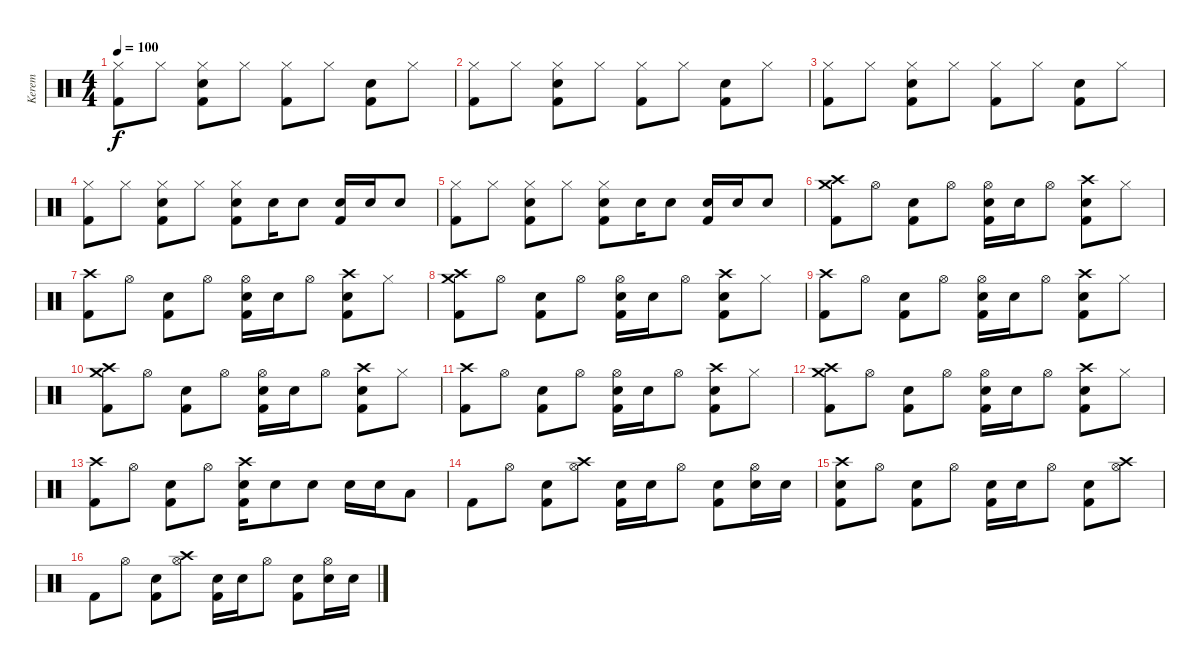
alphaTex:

\track ("Kerem" "Kerem") {instrument percussion}
\staff {score}
\articulation defaults
\ts (4 4)
\tempo 100
\clef neutral
\ks c
("Hi-Hat (closed)" "Kick (hit) 2").8{dy f} "Hi-Hat (closed)".8 ("Hi-Hat (closed)" "Electric Snare (hit)" "Kick (hit) 2").8 "Hi-Hat (closed)".8 ("Hi-Hat (closed)" "Kick (hit) 2").8 "Hi-Hat (closed)".8 ("Electric Snare (hit)" "Kick (hit) 2").8 "Hi-Hat (closed)".8 |
("Hi-Hat (closed)" "Kick (hit) 2").8 "Hi-Hat (closed)".8 ("Hi-Hat (closed)" "Electric Snare (hit)" "Kick (hit) 2").8 "Hi-Hat (closed)".8 ("Hi-Hat (closed)" "Kick (hit) 2").8 "Hi-Hat (closed)".8 ("Electric Snare (hit)" "Kick (hit) 2").8 "Hi-Hat (closed)".8 |
("Hi-Hat (closed)" "Kick (hit) 2").8 "Hi-Hat (closed)".8 ("Hi-Hat (closed)" "Electric Snare (hit)" "Kick (hit) 2").8 "Hi-Hat (closed)".8 ("Hi-Hat (closed)" "Kick (hit) 2").8 "Hi-Hat (closed)".8 ("Electric Snare (hit)" "Kick (hit) 2").8 "Hi-Hat (closed)".8 |
("Hi-Hat (closed)" "Kick (hit) 2").8 "Hi-Hat (closed)".8 ("Hi-Hat (closed)" "Electric Snare (hit)" "Kick (hit) 2").8 "Hi-Hat (closed)".8 ("Hi-Hat (closed)" "Electric Snare (hit)" "Kick (hit) 2").8 "Electric Snare (hit)".16 "Electric Snare (hit)".8 ("Electric Snare (hit)" "Kick (hit) 2").16 "Electric Snare (hit)".16 "Electric Snare (hit)".8 |
("Hi-Hat (closed)" "Kick (hit) 2").8 "Hi-Hat (closed)".8 ("Hi-Hat (closed)" "Electric Snare (hit)" "Kick (hit) 2").8 "Hi-Hat (closed)".8 ("Hi-Hat (closed)" "Electric Snare (hit)" "Kick (hit) 2").8 "Electric Snare (hit)".16 "Electric Snare (hit)".8 ("Electric Snare (hit)" "Kick (hit) 2").16 "Electric Snare (hit)".16 "Electric Snare (hit)".8 |
("Crash high (hit)" "Crash medium (hit)" "Kick (hit) 2").8 "Hi-Hat (open)".8 ("Electric Snare (hit)" "Kick (hit) 2").8 "Hi-Hat (open)".8 ("Electric Snare (hit)" "Hi-Hat (open)" "Kick (hit) 2").16 "Electric Snare (hit)".16 "Hi-Hat (open)".8 ("Crash high (hit)" "Electric Snare (hit)" "Kick (hit) 2").8 "Hi-Hat (closed)".8 |
("Crash high (hit)" "Kick (hit) 2").8 "Hi-Hat (open)".8 ("Electric Snare (hit)" "Kick (hit) 2").8 "Hi-Hat (open)".8 ("Electric Snare (hit)" "Hi-Hat (open)" "Kick (hit) 2").16 "Electric Snare (hit)".16 "Hi-Hat (open)".8 ("Crash high (hit)" "Electric Snare (hit)" "Kick (hit) 2").8 "Hi-Hat (closed)".8 |
("Crash high (hit)" "Crash medium (hit)" "Kick (hit) 2").8 "Hi-Hat (open)".8 ("Electric Snare (hit)" "Kick (hit) 2").8 "Hi-Hat (open)".8 ("Electric Snare (hit)" "Hi-Hat (open)" "Kick (hit) 2").16 "Electric Snare (hit)".16 "Hi-Hat (open)".8 ("Crash high (hit)" "Electric Snare (hit)" "Kick (hit) 2").8 "Hi-Hat (closed)".8 |
("Crash high (hit)" "Kick (hit) 2").8 "Hi-Hat (open)".8 ("Electric Snare (hit)" "Kick (hit) 2").8 "Hi-Hat (open)".8 ("Electric Snare (hit)" "Hi-Hat (open)" "Kick (hit) 2").16 "Electric Snare (hit)".16 "Hi-Hat (open)".8 ("Crash high (hit)" "Electric Snare (hit)" "Kick (hit) 2").8 "Hi-Hat (closed)".8 |
("Crash high (hit)" "Crash medium (hit)" "Kick (hit) 2").8 "Hi-Hat (open)".8 ("Electric Snare (hit)" "Kick (hit) 2").8 "Hi-Hat (open)".8 ("Electric Snare (hit)" "Hi-Hat (open)" "Kick (hit) 2").16 "Electric Snare (hit)".16 "Hi-Hat (open)".8 ("Crash high (hit)" "Electric Snare (hit)" "Kick (hit) 2").8 "Hi-Hat (closed)".8 |
("Crash high (hit)" "Kick (hit) 2").8 "Hi-Hat (open)".8 ("Electric Snare (hit)" "Kick (hit) 2").8 "Hi-Hat (open)".8 ("Electric Snare (hit)" "Hi-Hat (open)" "Kick (hit) 2").16 "Electric Snare (hit)".16 "Hi-Hat (open)".8 ("Crash high (hit)" "Electric Snare (hit)" "Kick (hit) 2").8 "Hi-Hat (closed)".8 |
("Crash high (hit)" "Crash medium (hit)" "Kick (hit) 2").8 "Hi-Hat (open)".8 ("Electric Snare (hit)" "Kick (hit) 2").8 "Hi-Hat (open)".8 ("Electric Snare (hit)" "Hi-Hat (open)" "Kick (hit) 2").16 "Electric Snare (hit)".16 "Hi-Hat (open)".8 ("Crash high (hit)" "Electric Snare (hit)" "Kick (hit) 2").8 "Hi-Hat (closed)".8 |
("Crash high (hit)" "Kick (hit) 2").8 "Hi-Hat (open)".8 ("Electric Snare (hit)" "Kick (hit) 2").8 "Hi-Hat (open)".8 ("Crash high (hit)" "Electric Snare (hit)" "Kick (hit) 2").16 "Electric Snare (hit)".8 "Electric Snare (hit)".8 "Electric Snare (hit)".16 "Electric Snare (hit)".16 "Low Tom (hit)".8 |
"Kick (hit) 2".8 "Hi-Hat (open)".8 ("Electric Snare (hit)" "Kick (hit) 2").8 ("Crash high (hit)" "Hi-Hat (open)").8 ("Electric Snare (hit)" "Kick (hit) 2").16 "Electric Snare (hit)".16 "Hi-Hat (open)".8 ("Electric Snare (hit)" "Kick (hit) 2").8 ("Electric Snare (hit)" "Hi-Hat (open)").16 "Electric Snare (hit)".16 |
("Crash high (hit)" "Electric Snare (hit)" "Kick (hit) 2").8 "Hi-Hat (open)".8 ("Electric Snare (hit)" "Kick (hit) 2").8 "Hi-Hat (open)".8 ("Electric Snare (hit)" "Kick (hit) 2").16 "Electric Snare (hit)".16 "Hi-Hat (open)".8 ("Electric Snare (hit)" "Kick (hit) 2").8 ("Crash high (hit)" "Hi-Hat (open)").8 |
"Kick (hit) 2".8 "Hi-Hat (open)".8 ("Electric Snare (hit)" "Kick (hit) 2").8 ("Crash high (hit)" "Hi-Hat (open)").8 ("Electric Snare (hit)" "Kick (hit) 2").16 "Electric Snare (hit)".16 "Hi-Hat (open)".8 ("Electric Snare (hit)" "Kick (hit) 2").8 ("Electric Snare (hit)" "Hi-Hat (open)").16 "Electric Snare (hit)".16
